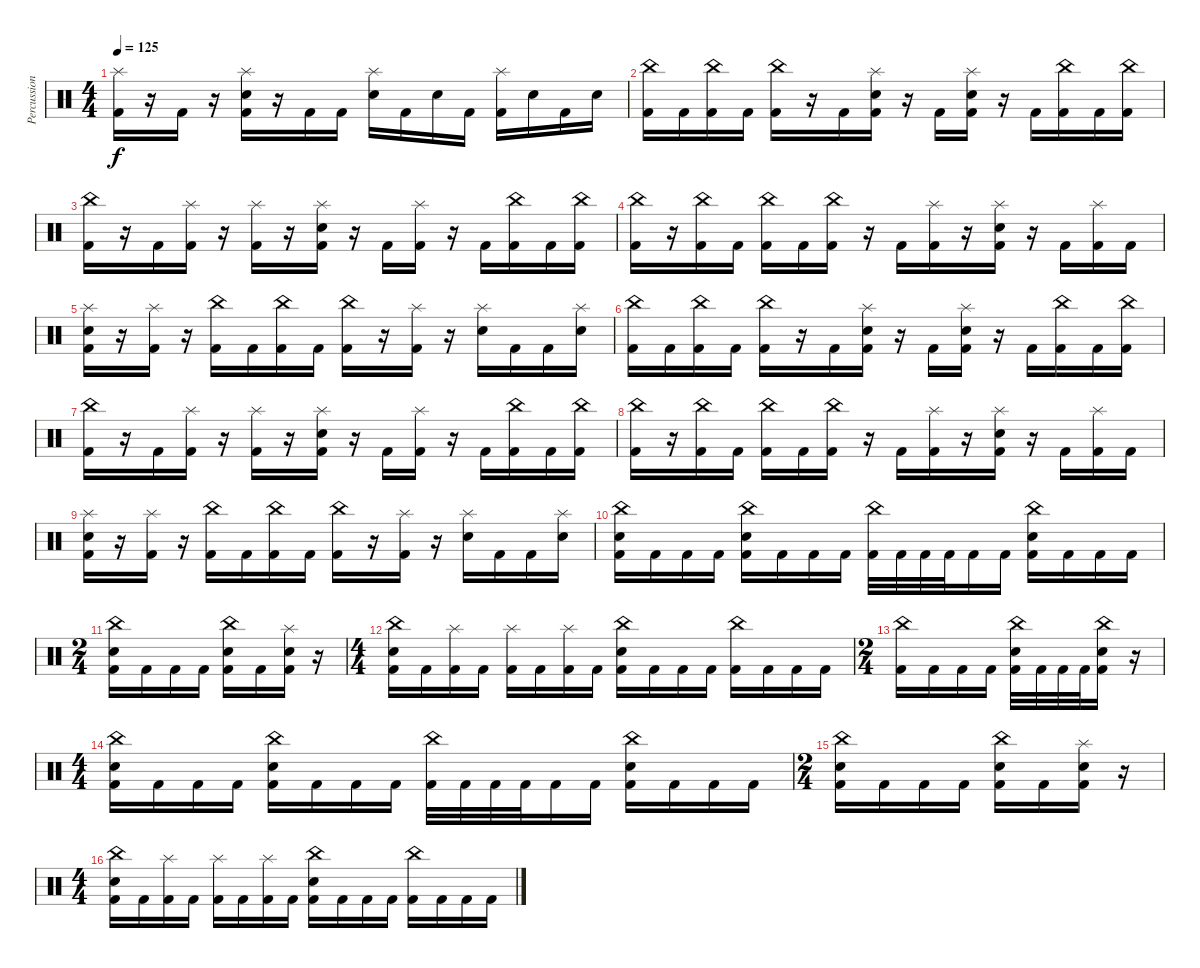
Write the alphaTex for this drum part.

\track ("Percussion" "Percussion") {instrument percussion}
\staff {score}
\articulation defaults
\ts (4 4)
\tempo 125
\clef neutral
\ks c
("Splash (hit)" "Kick (hit) 2").16{dy f} r.16 "Kick (hit) 2".16 r.16 ("Splash (hit)" "Electric Snare (hit)" "Kick (hit) 2").16 r.16 "Kick (hit) 2".16 "Kick (hit) 2".16 ("Splash (hit)" "Electric Snare (hit)").16 "Kick (hit) 2".16 "Electric Snare (hit)".16 "Kick (hit) 2".16 ("Splash (hit)" "Kick (hit) 2").16 "Electric Snare (hit)".16 "Kick (hit) 2".16 "Electric Snare (hit)".16 |
("China (hit)" "Kick (hit) 2").16 "Kick (hit) 2".16 ("China (hit)" "Kick (hit) 2").16 "Kick (hit) 2".16 ("China (hit)" "Kick (hit) 2").16 r.16 "Kick (hit) 2".16 ("Splash (hit)" "Electric Snare (hit)" "Kick (hit) 2").16 r.16 "Kick (hit) 2".16 ("Splash (hit)" "Electric Snare (hit)" "Kick (hit) 2").16 r.16 "Kick (hit) 2".16 ("China (hit)" "Kick (hit) 2").16 "Kick (hit) 2".16 ("China (hit)" "Kick (hit) 2").16 |
("China (hit)" "Kick (hit) 2").16 r.16 "Kick (hit) 2".16 ("Splash (hit)" "Kick (hit) 2").16 r.16 ("Splash (hit)" "Kick (hit) 2").16 r.16 ("Splash (hit)" "Electric Snare (hit)" "Kick (hit) 2").16 r.16 "Kick (hit) 2".16 ("Splash (hit)" "Kick (hit) 2").16 r.16 "Kick (hit) 2".16 ("China (hit)" "Kick (hit) 2").16 "Kick (hit) 2".16 ("China (hit)" "Kick (hit) 2").16 |
("China (hit)" "Kick (hit) 2").16 r.16 ("China (hit)" "Kick (hit) 2").16 "Kick (hit) 2".16 ("China (hit)" "Kick (hit) 2").16 "Kick (hit) 2".16 ("China (hit)" "Kick (hit) 2").16 r.16 "Kick (hit) 2".16 ("Splash (hit)" "Kick (hit) 2").16 r.16 ("Splash (hit)" "Electric Snare (hit)" "Kick (hit) 2").16 r.16 "Kick (hit) 2".16 ("Splash (hit)" "Kick (hit) 2").16 "Kick (hit) 2".16 |
("Splash (hit)" "Electric Snare (hit)" "Kick (hit) 2").16 r.16 ("Splash (hit)" "Kick (hit) 2").16 r.16 ("China (hit)" "Kick (hit) 2").16 "Kick (hit) 2".16 ("China (hit)" "Kick (hit) 2").16 "Kick (hit) 2".16 ("China (hit)" "Kick (hit) 2").16 r.16 ("Splash (hit)" "Kick (hit) 2").16 r.16 ("Splash (hit)" "Electric Snare (hit)").16 "Kick (hit) 2".16 "Kick (hit) 2".16 ("Splash (hit)" "Electric Snare (hit)").16 |
("China (hit)" "Kick (hit) 2").16 "Kick (hit) 2".16 ("China (hit)" "Kick (hit) 2").16 "Kick (hit) 2".16 ("China (hit)" "Kick (hit) 2").16 r.16 "Kick (hit) 2".16 ("Splash (hit)" "Electric Snare (hit)" "Kick (hit) 2").16 r.16 "Kick (hit) 2".16 ("Splash (hit)" "Electric Snare (hit)" "Kick (hit) 2").16 r.16 "Kick (hit) 2".16 ("China (hit)" "Kick (hit) 2").16 "Kick (hit) 2".16 ("China (hit)" "Kick (hit) 2").16 |
("China (hit)" "Kick (hit) 2").16 r.16 "Kick (hit) 2".16 ("Splash (hit)" "Kick (hit) 2").16 r.16 ("Splash (hit)" "Kick (hit) 2").16 r.16 ("Splash (hit)" "Electric Snare (hit)" "Kick (hit) 2").16 r.16 "Kick (hit) 2".16 ("Splash (hit)" "Kick (hit) 2").16 r.16 "Kick (hit) 2".16 ("China (hit)" "Kick (hit) 2").16 "Kick (hit) 2".16 ("China (hit)" "Kick (hit) 2").16 |
("China (hit)" "Kick (hit) 2").16 r.16 ("China (hit)" "Kick (hit) 2").16 "Kick (hit) 2".16 ("China (hit)" "Kick (hit) 2").16 "Kick (hit) 2".16 ("China (hit)" "Kick (hit) 2").16 r.16 "Kick (hit) 2".16 ("Splash (hit)" "Kick (hit) 2").16 r.16 ("Splash (hit)" "Electric Snare (hit)" "Kick (hit) 2").16 r.16 "Kick (hit) 2".16 ("Splash (hit)" "Kick (hit) 2").16 "Kick (hit) 2".16 |
("Splash (hit)" "Electric Snare (hit)" "Kick (hit) 2").16 r.16 ("Splash (hit)" "Kick (hit) 2").16 r.16 ("China (hit)" "Kick (hit) 2").16 "Kick (hit) 2".16 ("China (hit)" "Kick (hit) 2").16 "Kick (hit) 2".16 ("China (hit)" "Kick (hit) 2").16 r.16 ("Splash (hit)" "Kick (hit) 2").16 r.16 ("Splash (hit)" "Electric Snare (hit)").16 "Kick (hit) 2".16 "Kick (hit) 2".16 ("Splash (hit)" "Electric Snare (hit)").16 |
("China (hit)" "Electric Snare (hit)" "Kick (hit) 2").16 "Kick (hit) 2".16 "Kick (hit) 2".16 "Kick (hit) 2".16 ("China (hit)" "Electric Snare (hit)" "Kick (hit) 2").16 "Kick (hit) 2".16 "Kick (hit) 2".16 "Kick (hit) 2".16 ("China (hit)" "Kick (hit) 2").32 "Kick (hit) 2".32 "Kick (hit) 2".32 "Kick (hit) 2".32 "Kick (hit) 2".16 "Kick (hit) 2".16 ("China (hit)" "Electric Snare (hit)" "Kick (hit) 2").16 "Kick (hit) 2".16 "Kick (hit) 2".16 "Kick (hit) 2".16 |
\ts (2 4)
("China (hit)" "Electric Snare (hit)" "Kick (hit) 2").16 "Kick (hit) 2".16 "Kick (hit) 2".16 "Kick (hit) 2".16 ("China (hit)" "Electric Snare (hit)" "Kick (hit) 2").16 "Kick (hit) 2".16 ("Splash (hit)" "Electric Snare (hit)" "Kick (hit) 2").16 r.16 |
\ts (4 4)
("China (hit)" "Electric Snare (hit)" "Kick (hit) 2").16 "Kick (hit) 2".16 ("Splash (hit)" "Kick (hit) 2").16 "Kick (hit) 2".16 ("Splash (hit)" "Kick (hit) 2").16 "Kick (hit) 2".16 ("Splash (hit)" "Kick (hit) 2").16 "Kick (hit) 2".16 ("China (hit)" "Electric Snare (hit)" "Kick (hit) 2").16 "Kick (hit) 2".16 "Kick (hit) 2".16 "Kick (hit) 2".16 ("China (hit)" "Kick (hit) 2").16 "Kick (hit) 2".16 "Kick (hit) 2".16 "Kick (hit) 2".16 |
\ts (2 4)
("China (hit)" "Kick (hit) 2").16 "Kick (hit) 2".16 "Kick (hit) 2".16 "Kick (hit) 2".16 ("China (hit)" "Electric Snare (hit)" "Kick (hit) 2").32 "Kick (hit) 2".32 "Kick (hit) 2".32 "Kick (hit) 2".32 ("China (hit)" "Electric Snare (hit)" "Kick (hit) 2").16 r.16 |
\ts (4 4)
("China (hit)" "Electric Snare (hit)" "Kick (hit) 2").16 "Kick (hit) 2".16 "Kick (hit) 2".16 "Kick (hit) 2".16 ("China (hit)" "Electric Snare (hit)" "Kick (hit) 2").16 "Kick (hit) 2".16 "Kick (hit) 2".16 "Kick (hit) 2".16 ("China (hit)" "Kick (hit) 2").32 "Kick (hit) 2".32 "Kick (hit) 2".32 "Kick (hit) 2".32 "Kick (hit) 2".16 "Kick (hit) 2".16 ("China (hit)" "Electric Snare (hit)" "Kick (hit) 2").16 "Kick (hit) 2".16 "Kick (hit) 2".16 "Kick (hit) 2".16 |
\ts (2 4)
("China (hit)" "Electric Snare (hit)" "Kick (hit) 2").16 "Kick (hit) 2".16 "Kick (hit) 2".16 "Kick (hit) 2".16 ("China (hit)" "Electric Snare (hit)" "Kick (hit) 2").16 "Kick (hit) 2".16 ("Splash (hit)" "Electric Snare (hit)" "Kick (hit) 2").16 r.16 |
\ts (4 4)
("China (hit)" "Electric Snare (hit)" "Kick (hit) 2").16 "Kick (hit) 2".16 ("Splash (hit)" "Kick (hit) 2").16 "Kick (hit) 2".16 ("Splash (hit)" "Kick (hit) 2").16 "Kick (hit) 2".16 ("Splash (hit)" "Kick (hit) 2").16 "Kick (hit) 2".16 ("China (hit)" "Electric Snare (hit)" "Kick (hit) 2").16 "Kick (hit) 2".16 "Kick (hit) 2".16 "Kick (hit) 2".16 ("China (hit)" "Kick (hit) 2").16 "Kick (hit) 2".16 "Kick (hit) 2".16 "Kick (hit) 2".16
